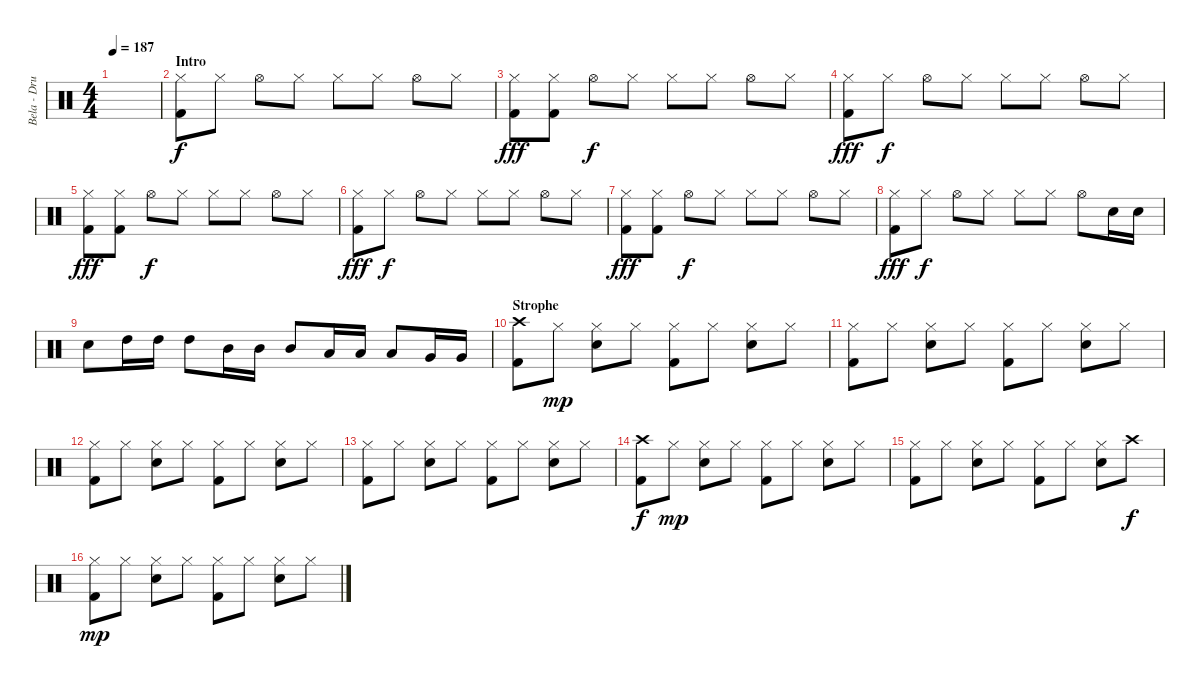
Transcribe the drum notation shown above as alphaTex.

\track ("Bela - Drums" "Bela - Dru") {instrument percussion}
\staff {score}
\articulation defaults
\ts (4 4)
\tempo 187
\clef neutral
\ks c
|
\section ("" "Intro")
("Hi-Hat (closed)" "Kick (hit) 2").8 "Hi-Hat (closed)".8{dy f} "Hi-Hat (open)".8 "Hi-Hat (closed)".8 "Hi-Hat (closed)".8 "Hi-Hat (closed)".8 "Hi-Hat (open)".8 "Hi-Hat (closed)".8 |
("Hi-Hat (closed)" "Kick (hit) 2").8{dy fff} ("Hi-Hat (closed)" "Kick (hit) 2").8 "Hi-Hat (open)".8{dy f} "Hi-Hat (closed)".8 "Hi-Hat (closed)".8 "Hi-Hat (closed)".8 "Hi-Hat (open)".8 "Hi-Hat (closed)".8 |
("Hi-Hat (closed)" "Kick (hit) 2").8{dy fff} "Hi-Hat (closed)".8{dy f} "Hi-Hat (open)".8 "Hi-Hat (closed)".8 "Hi-Hat (closed)".8 "Hi-Hat (closed)".8 "Hi-Hat (open)".8 "Hi-Hat (closed)".8 |
("Hi-Hat (closed)" "Kick (hit) 2").8{dy fff} ("Hi-Hat (closed)" "Kick (hit) 2").8 "Hi-Hat (open)".8{dy f} "Hi-Hat (closed)".8 "Hi-Hat (closed)".8 "Hi-Hat (closed)".8 "Hi-Hat (open)".8 "Hi-Hat (closed)".8 |
("Hi-Hat (closed)" "Kick (hit) 2").8{dy fff} "Hi-Hat (closed)".8{dy f} "Hi-Hat (open)".8 "Hi-Hat (closed)".8 "Hi-Hat (closed)".8 "Hi-Hat (closed)".8 "Hi-Hat (open)".8 "Hi-Hat (closed)".8 |
("Hi-Hat (closed)" "Kick (hit) 2").8{dy fff} ("Hi-Hat (closed)" "Kick (hit) 2").8 "Hi-Hat (open)".8{dy f} "Hi-Hat (closed)".8 "Hi-Hat (closed)".8 "Hi-Hat (closed)".8 "Hi-Hat (open)".8 "Hi-Hat (closed)".8 |
("Hi-Hat (closed)" "Kick (hit) 2").8{dy fff} "Hi-Hat (closed)".8{dy f} "Hi-Hat (open)".8 "Hi-Hat (closed)".8 "Hi-Hat (closed)".8 "Hi-Hat (closed)".8 "Hi-Hat (open)".8 "Snare (hit) 2".16 "Snare (hit) 2".16 |
"Snare (hit) 2".8 "High Tom (hit)".16 "High Tom (hit)".16 "High Tom (hit)".8 "Mid Tom (hit)".16 "Mid Tom (hit)".16 "Mid Tom (hit)".8 "Low Tom (hit)".16 "Low Tom (hit)".16 "Low Tom (hit)".8 "Very Low Tom (hit)".16 "Very Low Tom (hit)".16 |
\section ("" "Strophe")
("Crash high (hit)" "Kick (hit) 2").8 "Hi-Hat (closed)".8{dy mp} ("Hi-Hat (closed)" "Snare (hit) 2").8 "Hi-Hat (closed)".8 ("Hi-Hat (closed)" "Kick (hit) 2").8 "Hi-Hat (closed)".8 ("Hi-Hat (closed)" "Snare (hit) 2").8 "Hi-Hat (closed)".8 |
("Hi-Hat (closed)" "Kick (hit) 2").8 "Hi-Hat (closed)".8 ("Hi-Hat (closed)" "Snare (hit) 2").8 "Hi-Hat (closed)".8 ("Hi-Hat (closed)" "Kick (hit) 2").8 "Hi-Hat (closed)".8 ("Hi-Hat (closed)" "Snare (hit) 2").8 "Hi-Hat (closed)".8 |
("Hi-Hat (closed)" "Kick (hit) 2").8 "Hi-Hat (closed)".8 ("Hi-Hat (closed)" "Snare (hit) 2").8 "Hi-Hat (closed)".8 ("Hi-Hat (closed)" "Kick (hit) 2").8 "Hi-Hat (closed)".8 ("Hi-Hat (closed)" "Snare (hit) 2").8 "Hi-Hat (closed)".8 |
("Hi-Hat (closed)" "Kick (hit) 2").8 "Hi-Hat (closed)".8 ("Hi-Hat (closed)" "Snare (hit) 2").8 "Hi-Hat (closed)".8 ("Hi-Hat (closed)" "Kick (hit) 2").8 "Hi-Hat (closed)".8 ("Hi-Hat (closed)" "Snare (hit) 2").8 "Hi-Hat (closed)".8 |
("Crash high (hit)" "Kick (hit) 2").8{dy f} "Hi-Hat (closed)".8{dy mp} ("Hi-Hat (closed)" "Snare (hit) 2").8 "Hi-Hat (closed)".8 ("Hi-Hat (closed)" "Kick (hit) 2").8 "Hi-Hat (closed)".8 ("Hi-Hat (closed)" "Snare (hit) 2").8 "Hi-Hat (closed)".8 |
("Hi-Hat (closed)" "Kick (hit) 2").8 "Hi-Hat (closed)".8 ("Hi-Hat (closed)" "Snare (hit) 2").8 "Hi-Hat (closed)".8 ("Hi-Hat (closed)" "Kick (hit) 2").8 "Hi-Hat (closed)".8 ("Hi-Hat (closed)" "Snare (hit) 2").8 "Crash high (hit)".8{dy f} |
("Hi-Hat (closed)" "Kick (hit) 2").8{dy mp} "Hi-Hat (closed)".8 ("Hi-Hat (closed)" "Snare (hit) 2").8 "Hi-Hat (closed)".8 ("Hi-Hat (closed)" "Kick (hit) 2").8 "Hi-Hat (closed)".8 ("Hi-Hat (closed)" "Snare (hit) 2").8 "Hi-Hat (closed)".8
